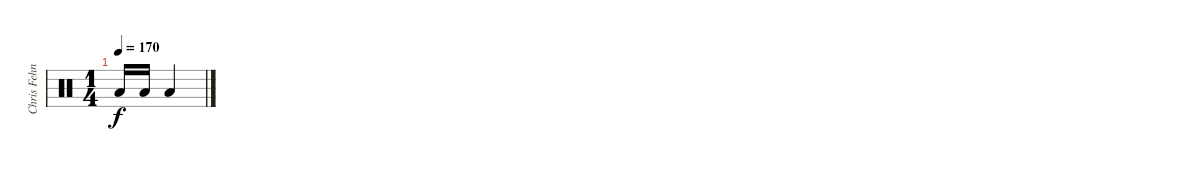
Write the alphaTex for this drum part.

\track ("Chris Fehn" "Chris Fehn") {instrument percussion}
\staff {score}
\articulation defaults
\ts (1 4)
\tempo 170
\clef neutral
\ks c "Low Floor Tom (hit)".16{dy f} "Low Floor Tom (hit)".16 "Low Floor Tom (hit)".4
